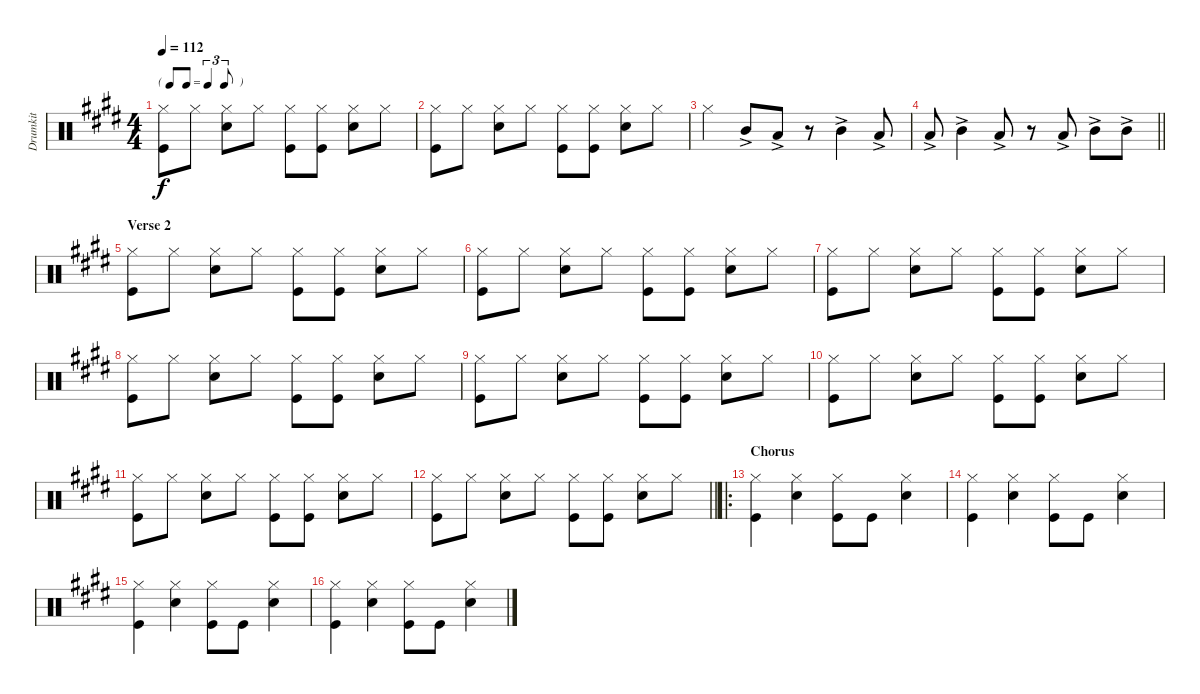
\track ("Drumkit" "Drumkit") {instrument percussion}
\staff {score}
\articulation defaults
\ts (4 4)
\tf triplet8th
\tempo 112
\clef neutral
\ks e
("Hi-Hat (closed)" "Kick (hit)").8{dy f} "Hi-Hat (closed)".8 ("Hi-Hat (closed)" "Snare (hit) 2").8 "Hi-Hat (closed)".8 ("Hi-Hat (closed)" "Kick (hit)").8 ("Hi-Hat (closed)" "Kick (hit)").8 ("Hi-Hat (closed)" "Snare (hit) 2").8 "Hi-Hat (closed)".8 |
("Hi-Hat (closed)" "Kick (hit)").8 "Hi-Hat (closed)".8 ("Hi-Hat (closed)" "Snare (hit) 2").8 "Hi-Hat (closed)".8 ("Hi-Hat (closed)" "Kick (hit)").8 ("Hi-Hat (closed)" "Kick (hit)").8 ("Hi-Hat (closed)" "Snare (hit) 2").8 "Hi-Hat (closed)".8 |
"Hi-Hat (closed)".4 "Mid Tom (hit)"{ac}.8 "Low Tom (hit)"{ac}.8 r.8 "Mid Tom (hit)"{ac}.4 "Low Tom (hit)"{ac}.8 |
\barLineRight lightlight "Low Tom (hit)"{ac}.8 "Mid Tom (hit)"{ac}.4 "Low Tom (hit)"{ac}.8
r.8 "Low Tom (hit)"{ac}.8 "Mid Tom (hit)"{ac}.8 "Mid Tom (hit)"{ac}.8 |
\section ("" "Verse 2")
("Hi-Hat (closed)" "Kick (hit)").8 "Hi-Hat (closed)".8 ("Hi-Hat (closed)" "Snare (hit) 2").8 "Hi-Hat (closed)".8 ("Hi-Hat (closed)" "Kick (hit)").8 ("Hi-Hat (closed)" "Kick (hit)").8 ("Hi-Hat (closed)" "Snare (hit) 2").8 "Hi-Hat (closed)".8 |
("Hi-Hat (closed)" "Kick (hit)").8 "Hi-Hat (closed)".8 ("Hi-Hat (closed)" "Snare (hit) 2").8 "Hi-Hat (closed)".8 ("Hi-Hat (closed)" "Kick (hit)").8 ("Hi-Hat (closed)" "Kick (hit)").8 ("Hi-Hat (closed)" "Snare (hit) 2").8 "Hi-Hat (closed)".8 |
("Hi-Hat (closed)" "Kick (hit)").8 "Hi-Hat (closed)".8 ("Hi-Hat (closed)" "Snare (hit) 2").8 "Hi-Hat (closed)".8 ("Hi-Hat (closed)" "Kick (hit)").8 ("Hi-Hat (closed)" "Kick (hit)").8 ("Hi-Hat (closed)" "Snare (hit) 2").8 "Hi-Hat (closed)".8 |
("Hi-Hat (closed)" "Kick (hit)").8 "Hi-Hat (closed)".8 ("Hi-Hat (closed)" "Snare (hit) 2").8 "Hi-Hat (closed)".8 ("Hi-Hat (closed)" "Kick (hit)").8 ("Hi-Hat (closed)" "Kick (hit)").8 ("Hi-Hat (closed)" "Snare (hit) 2").8 "Hi-Hat (closed)".8 |
("Hi-Hat (closed)" "Kick (hit)").8 "Hi-Hat (closed)".8 ("Hi-Hat (closed)" "Snare (hit) 2").8 "Hi-Hat (closed)".8 ("Hi-Hat (closed)" "Kick (hit)").8 ("Hi-Hat (closed)" "Kick (hit)").8 ("Hi-Hat (closed)" "Snare (hit) 2").8 "Hi-Hat (closed)".8 |
("Hi-Hat (closed)" "Kick (hit)").8 "Hi-Hat (closed)".8 ("Hi-Hat (closed)" "Snare (hit) 2").8 "Hi-Hat (closed)".8 ("Hi-Hat (closed)" "Kick (hit)").8 ("Hi-Hat (closed)" "Kick (hit)").8 ("Hi-Hat (closed)" "Snare (hit) 2").8 "Hi-Hat (closed)".8 |
("Hi-Hat (closed)" "Kick (hit)").8 "Hi-Hat (closed)".8 ("Hi-Hat (closed)" "Snare (hit) 2").8 "Hi-Hat (closed)".8 ("Hi-Hat (closed)" "Kick (hit)").8 ("Hi-Hat (closed)" "Kick (hit)").8 ("Hi-Hat (closed)" "Snare (hit) 2").8 "Hi-Hat (closed)".8 |
\barLineRight lightlight
("Hi-Hat (closed)" "Kick (hit)").8 "Hi-Hat (closed)".8 ("Hi-Hat (closed)" "Snare (hit) 2").8 "Hi-Hat (closed)".8 ("Hi-Hat (closed)" "Kick (hit)").8 ("Hi-Hat (closed)" "Kick (hit)").8 ("Hi-Hat (closed)" "Snare (hit) 2").8 "Hi-Hat (closed)".8 |
\ro
\section ("" "Chorus")
("Hi-Hat (closed)" "Kick (hit)").4 ("Hi-Hat (closed)" "Snare (hit) 2").4 ("Hi-Hat (closed)" "Kick (hit)").8 "Kick (hit)".8 ("Hi-Hat (closed)" "Snare (hit) 2").4 |
("Hi-Hat (closed)" "Kick (hit)").4 ("Hi-Hat (closed)" "Snare (hit) 2").4 ("Hi-Hat (closed)" "Kick (hit)").8 "Kick (hit)".8 ("Hi-Hat (closed)" "Snare (hit) 2").4 |
("Hi-Hat (closed)" "Kick (hit)").4 ("Hi-Hat (closed)" "Snare (hit) 2").4 ("Hi-Hat (closed)" "Kick (hit)").8 "Kick (hit)".8 ("Hi-Hat (closed)" "Snare (hit) 2").4 |
("Hi-Hat (closed)" "Kick (hit)").4 ("Hi-Hat (closed)" "Snare (hit) 2").4 ("Hi-Hat (closed)" "Kick (hit)").8 "Kick (hit)".8 ("Hi-Hat (closed)" "Snare (hit) 2").4
